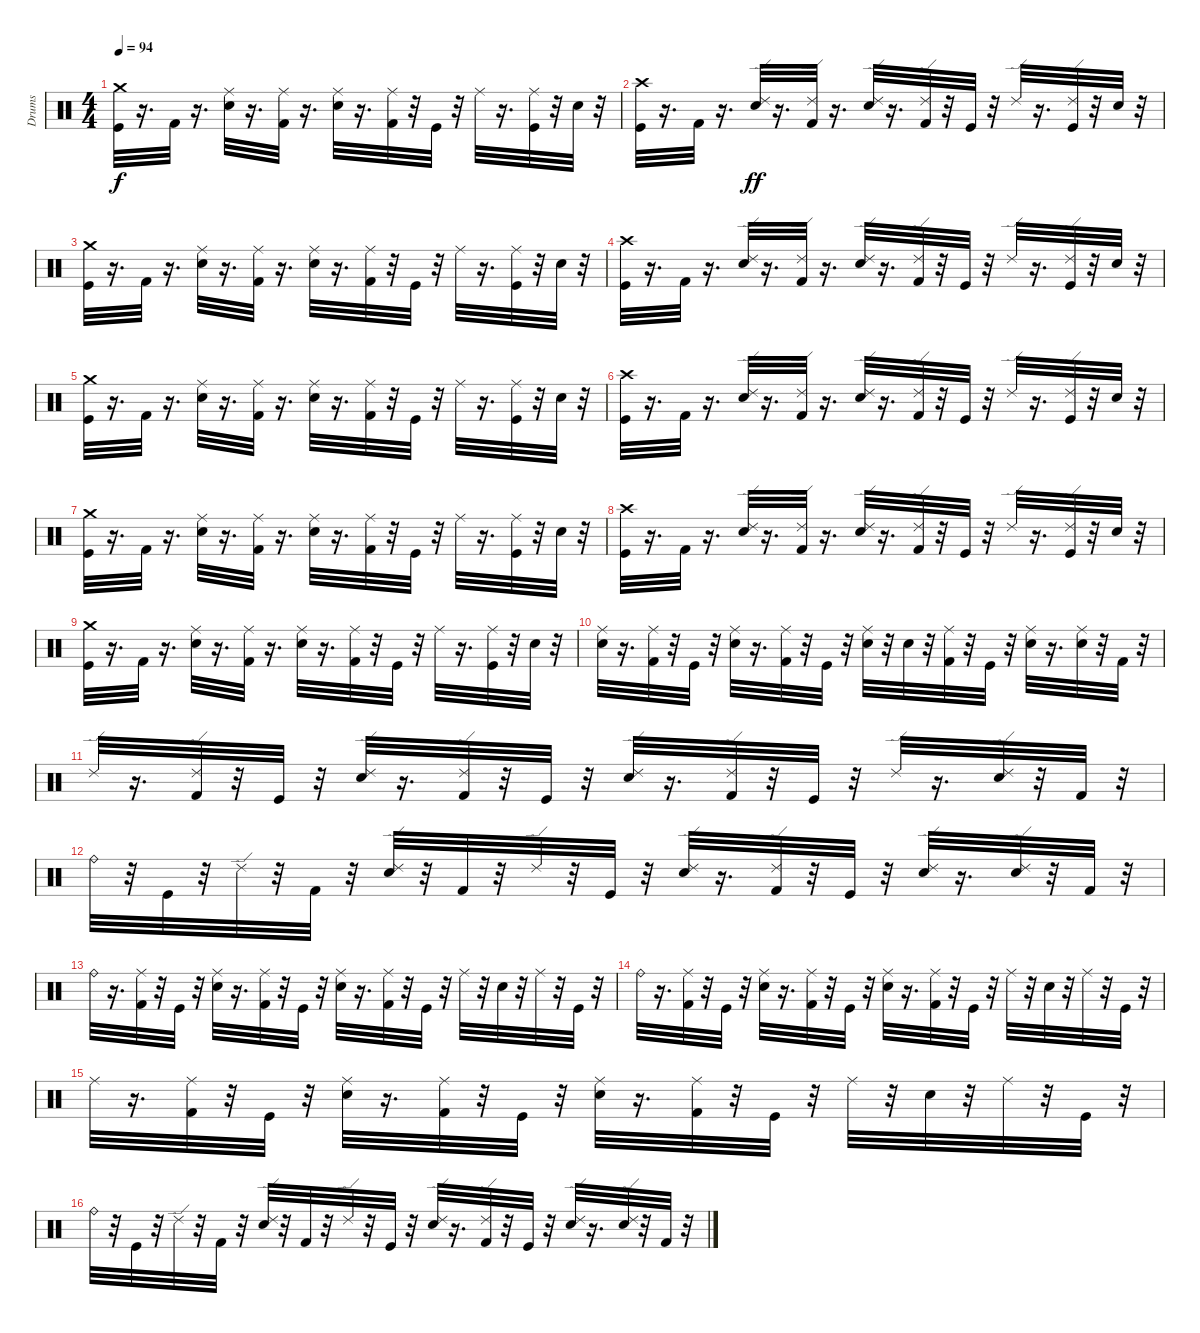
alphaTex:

\track ("Drums" "Drums") {instrument percussion}
\staff {score}
\articulation defaults
\ts (4 4)
\tempo 94
\clef neutral
\ks c
("Crash medium (hit)" "Kick (hit)").32{dy f} r.16{d} "Kick (hit) 2".32 r.16{d} ("Ride (middle)" "Electric Snare (hit)").32 r.16{d} ("Ride (middle)" "Kick (hit) 2").32 r.16{d} ("Ride (middle)" "Electric Snare (hit)").32 r.16{d} ("Ride (middle)" "Kick (hit) 2").32 r.32 "Kick (hit)".32 r.32 "Ride (middle)".32 r.16{d} ("Ride (middle)" "Kick (hit)").32 r.32 "Electric Snare (hit)".32 r.32 |
("Crash high (hit)" "Kick (hit)").32 r.16{d} "Kick (hit) 2".32 r.16{d} ("Ride (edge) 2" "Electric Snare (hit)").32{dy ff} r.16{d} ("Ride (edge) 2" "Kick (hit) 2").32 r.16{d} ("Ride (edge) 2" "Electric Snare (hit)").32 r.16{d} ("Ride (edge) 2" "Kick (hit) 2").32 r.32 "Kick (hit)".32 r.32 "Ride (edge) 2".32 r.16{d} ("Ride (edge) 2" "Kick (hit)").32 r.32 "Electric Snare (hit)".32 r.32 |
("Crash medium (hit)" "Kick (hit)").32 r.16{d} "Kick (hit) 2".32 r.16{d} ("Ride (middle)" "Electric Snare (hit)").32 r.16{d} ("Ride (middle)" "Kick (hit) 2").32 r.16{d} ("Ride (middle)" "Electric Snare (hit)").32 r.16{d} ("Ride (middle)" "Kick (hit) 2").32 r.32 "Kick (hit)".32 r.32 "Ride (middle)".32 r.16{d} ("Ride (middle)" "Kick (hit)").32 r.32 "Electric Snare (hit)".32 r.32 |
("Crash high (hit)" "Kick (hit)").32 r.16{d} "Kick (hit) 2".32 r.16{d} ("Ride (edge) 2" "Electric Snare (hit)").32 r.16{d} ("Ride (edge) 2" "Kick (hit) 2").32 r.16{d} ("Ride (edge) 2" "Electric Snare (hit)").32 r.16{d} ("Ride (edge) 2" "Kick (hit) 2").32 r.32 "Kick (hit)".32 r.32 "Ride (edge) 2".32 r.16{d} ("Ride (edge) 2" "Kick (hit)").32 r.32 "Electric Snare (hit)".32 r.32 |
("Crash medium (hit)" "Kick (hit)").32 r.16{d} "Kick (hit) 2".32 r.16{d} ("Ride (middle)" "Electric Snare (hit)").32 r.16{d} ("Ride (middle)" "Kick (hit) 2").32 r.16{d} ("Ride (middle)" "Electric Snare (hit)").32 r.16{d} ("Ride (middle)" "Kick (hit) 2").32 r.32 "Kick (hit)".32 r.32 "Ride (middle)".32 r.16{d} ("Ride (middle)" "Kick (hit)").32 r.32 "Electric Snare (hit)".32 r.32 |
("Crash high (hit)" "Kick (hit)").32 r.16{d} "Kick (hit) 2".32 r.16{d} ("Ride (edge) 2" "Electric Snare (hit)").32 r.16{d} ("Ride (edge) 2" "Kick (hit) 2").32 r.16{d} ("Ride (edge) 2" "Electric Snare (hit)").32 r.16{d} ("Ride (edge) 2" "Kick (hit) 2").32 r.32 "Kick (hit)".32 r.32 "Ride (edge) 2".32 r.16{d} ("Ride (edge) 2" "Kick (hit)").32 r.32 "Electric Snare (hit)".32 r.32 |
("Crash medium (hit)" "Kick (hit)").32 r.16{d} "Kick (hit) 2".32 r.16{d} ("Ride (middle)" "Electric Snare (hit)").32 r.16{d} ("Ride (middle)" "Kick (hit) 2").32 r.16{d} ("Ride (middle)" "Electric Snare (hit)").32 r.16{d} ("Ride (middle)" "Kick (hit) 2").32 r.32 "Kick (hit)".32 r.32 "Ride (middle)".32 r.16{d} ("Ride (middle)" "Kick (hit)").32 r.32 "Electric Snare (hit)".32 r.32 |
("Crash high (hit)" "Kick (hit)").32 r.16{d} "Kick (hit) 2".32 r.16{d} ("Ride (edge) 2" "Electric Snare (hit)").32 r.16{d} ("Ride (edge) 2" "Kick (hit) 2").32 r.16{d} ("Ride (edge) 2" "Electric Snare (hit)").32 r.16{d} ("Ride (edge) 2" "Kick (hit) 2").32 r.32 "Kick (hit)".32 r.32 "Ride (edge) 2".32 r.16{d} ("Ride (edge) 2" "Kick (hit)").32 r.32 "Electric Snare (hit)".32 r.32 |
("Crash medium (hit)" "Kick (hit)").32 r.16{d} "Kick (hit) 2".32 r.16{d} ("Ride (middle)" "Electric Snare (hit)").32 r.16{d} ("Ride (middle)" "Kick (hit) 2").32 r.16{d} ("Ride (middle)" "Electric Snare (hit)").32 r.16{d} ("Ride (middle)" "Kick (hit) 2").32 r.32 "Kick (hit)".32 r.32 "Ride (middle)".32 r.16{d} ("Ride (middle)" "Kick (hit)").32 r.32 "Electric Snare (hit)".32 r.32 |
("Electric Snare (hit)" "Ride (middle)").32 r.16{d} ("Kick (hit) 2" "Ride (middle)").32 r.32 "Kick (hit)".32 r.32 ("Electric Snare (hit)" "Ride (middle)").32 r.16{d} ("Kick (hit) 2" "Ride (middle)").32 r.32 "Kick (hit)".32 r.32 ("Electric Snare (hit)" "Ride (middle)").32 r.32 "Electric Snare (hit)".32 r.32 ("Kick (hit) 2" "Ride (middle)").32 r.32 "Kick (hit)".32 r.32 ("Electric Snare (hit)" "Ride (middle)").32 r.16{d} ("Electric Snare (hit)" "Ride (middle)").32 r.32 "Kick (hit) 2".32 r.32 |
"Ride (edge) 2".32 r.16{d} ("Ride (edge) 2" "Kick (hit) 2").32 r.32 "Kick (hit)".32 r.32 ("Ride (edge) 2" "Electric Snare (hit)").32 r.16{d} ("Ride (edge) 2" "Kick (hit) 2").32 r.32 "Kick (hit)".32 r.32 ("Ride (edge) 2" "Electric Snare (hit)").32 r.16{d} ("Ride (edge) 2" "Kick (hit) 2").32 r.32 "Kick (hit)".32 r.32 "Ride (edge) 2".32 r.16{d} ("Ride (edge) 2" "Electric Snare (hit)").32 r.32 "Kick (hit) 2".32 r.32 |
"Ride (bell)".32 r.32 "Kick (hit)".32 r.32 "Ride (edge) 2".32 r.32 "Kick (hit) 2".32 r.32 ("Electric Snare (hit)" "Ride (edge) 2").32 r.32 "Kick (hit) 2".32 r.32 "Ride (edge) 2".32 r.32 "Kick (hit)".32 r.32 ("Electric Snare (hit)" "Ride (edge) 2").32 r.16{d} ("Kick (hit) 2" "Ride (edge) 2").32 r.32 "Kick (hit)".32 r.32 ("Electric Snare (hit)" "Ride (edge) 2").32 r.16{d} ("Electric Snare (hit)" "Ride (edge) 2").32 r.32 "Kick (hit) 2".32 r.32 |
"Ride (bell)".32 r.16{d} ("Ride (middle)" "Kick (hit) 2").32 r.32 "Kick (hit)".32 r.32 ("Ride (middle)" "Electric Snare (hit)").32 r.16{d} ("Ride (middle)" "Kick (hit) 2").32 r.32 "Kick (hit)".32 r.32 ("Ride (middle)" "Electric Snare (hit)").32 r.16{d} ("Ride (middle)" "Kick (hit) 2").32 r.32 "Kick (hit)".32 r.32 "Ride (middle)".32 r.32 "Electric Snare (hit)".32 r.32 "Ride (middle)".32 r.32 "Kick (hit)".32 r.32 |
"Ride (bell)".32 r.16{d} ("Ride (middle)" "Kick (hit) 2").32 r.32 "Kick (hit)".32 r.32 ("Ride (middle)" "Electric Snare (hit)").32 r.16{d} ("Ride (middle)" "Kick (hit) 2").32 r.32 "Kick (hit)".32 r.32 ("Ride (middle)" "Electric Snare (hit)").32 r.16{d} ("Ride (middle)" "Kick (hit) 2").32 r.32 "Kick (hit)".32 r.32 "Ride (middle)".32 r.32 "Electric Snare (hit)".32 r.32 "Ride (middle)".32 r.32 "Kick (hit)".32 r.32 |
"Ride (middle)".32 r.16{d} ("Ride (middle)" "Kick (hit) 2").32 r.32 "Kick (hit)".32 r.32 ("Ride (middle)" "Electric Snare (hit)").32 r.16{d} ("Ride (middle)" "Kick (hit) 2").32 r.32 "Kick (hit)".32 r.32 ("Ride (middle)" "Electric Snare (hit)").32 r.16{d} ("Ride (middle)" "Kick (hit) 2").32 r.32 "Kick (hit)".32 r.32 "Ride (middle)".32 r.32 "Electric Snare (hit)".32 r.32 "Ride (middle)".32 r.32 "Kick (hit)".32 r.32 |
"Ride (bell)".32 r.32 "Kick (hit)".32 r.32 "Ride (edge) 2".32 r.32 "Kick (hit) 2".32 r.32 ("Electric Snare (hit)" "Ride (edge) 2").32 r.32 "Kick (hit) 2".32 r.32 "Ride (edge) 2".32 r.32 "Kick (hit)".32 r.32 ("Electric Snare (hit)" "Ride (edge) 2").32 r.16{d} ("Kick (hit) 2" "Ride (edge) 2").32 r.32 "Kick (hit)".32 r.32 ("Electric Snare (hit)" "Ride (edge) 2").32 r.16{d} ("Electric Snare (hit)" "Ride (edge) 2").32 r.32 "Kick (hit) 2".32 r.32
